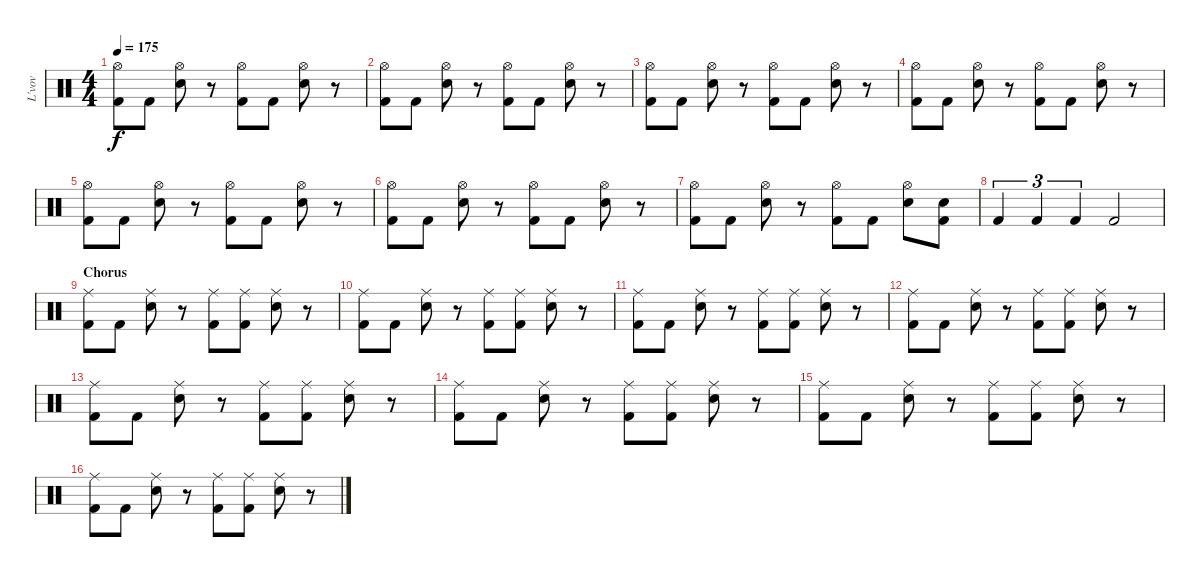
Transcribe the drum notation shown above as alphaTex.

\track ("L'vov" "L'vov") {instrument percussion}
\staff {score}
\articulation defaults
\ts (4 4)
\tempo 175
\clef neutral
\ks c
("Kick (hit) 2" "Hi-Hat (open)").8{dy f} "Kick (hit) 2".8 ("Snare (hit) 2" "Hi-Hat (open)").8 r.8 ("Kick (hit) 2" "Hi-Hat (open)").8 "Kick (hit) 2".8 ("Snare (hit) 2" "Hi-Hat (open)").8 r.8 |
("Kick (hit) 2" "Hi-Hat (open)").8 "Kick (hit) 2".8 ("Snare (hit) 2" "Hi-Hat (open)").8 r.8 ("Kick (hit) 2" "Hi-Hat (open)").8 "Kick (hit) 2".8 ("Snare (hit) 2" "Hi-Hat (open)").8 r.8 |
("Kick (hit) 2" "Hi-Hat (open)").8 "Kick (hit) 2".8 ("Snare (hit) 2" "Hi-Hat (open)").8 r.8 ("Kick (hit) 2" "Hi-Hat (open)").8 "Kick (hit) 2".8 ("Snare (hit) 2" "Hi-Hat (open)").8 r.8 |
("Kick (hit) 2" "Hi-Hat (open)").8 "Kick (hit) 2".8 ("Snare (hit) 2" "Hi-Hat (open)").8 r.8 ("Kick (hit) 2" "Hi-Hat (open)").8 "Kick (hit) 2".8 ("Snare (hit) 2" "Hi-Hat (open)").8 r.8 |
("Kick (hit) 2" "Hi-Hat (open)").8 "Kick (hit) 2".8 ("Snare (hit) 2" "Hi-Hat (open)").8 r.8 ("Kick (hit) 2" "Hi-Hat (open)").8 "Kick (hit) 2".8 ("Snare (hit) 2" "Hi-Hat (open)").8 r.8 |
("Kick (hit) 2" "Hi-Hat (open)").8 "Kick (hit) 2".8 ("Snare (hit) 2" "Hi-Hat (open)").8 r.8 ("Kick (hit) 2" "Hi-Hat (open)").8 "Kick (hit) 2".8 ("Snare (hit) 2" "Hi-Hat (open)").8 r.8 |
("Kick (hit) 2" "Hi-Hat (open)").8 "Kick (hit) 2".8 ("Snare (hit) 2" "Hi-Hat (open)").8 r.8 ("Kick (hit) 2" "Hi-Hat (open)").8 "Kick (hit) 2".8 ("Snare (hit) 2" "Hi-Hat (open)").8 ("Snare (hit) 2" "Kick (hit) 2").8 |
"Kick (hit) 2".4{tu (3 2)} "Kick (hit) 2".4{tu (3 2)} "Kick (hit) 2".4{tu (3 2)} "Kick (hit) 2".2 |
\section ("" "Chorus")
("Kick (hit) 2" "Ride (middle)").8 "Kick (hit) 2".8 ("Snare (hit) 2" "Ride (middle)").8 r.8 ("Kick (hit) 2" "Ride (middle)").8 ("Kick (hit) 2" "Ride (middle)").8 ("Snare (hit) 2" "Ride (middle)").8 r.8 |
("Kick (hit) 2" "Ride (middle)").8 "Kick (hit) 2".8 ("Snare (hit) 2" "Ride (middle)").8 r.8 ("Kick (hit) 2" "Ride (middle)").8 ("Kick (hit) 2" "Ride (middle)").8 ("Snare (hit) 2" "Ride (middle)").8 r.8 |
("Kick (hit) 2" "Ride (middle)").8 "Kick (hit) 2".8 ("Snare (hit) 2" "Ride (middle)").8 r.8 ("Kick (hit) 2" "Ride (middle)").8 ("Kick (hit) 2" "Ride (middle)").8 ("Snare (hit) 2" "Ride (middle)").8 r.8 |
("Kick (hit) 2" "Ride (middle)").8 "Kick (hit) 2".8 ("Snare (hit) 2" "Ride (middle)").8 r.8 ("Kick (hit) 2" "Ride (middle)").8 ("Kick (hit) 2" "Ride (middle)").8 ("Snare (hit) 2" "Ride (middle)").8 r.8 |
("Kick (hit) 2" "Ride (middle)").8 "Kick (hit) 2".8 ("Snare (hit) 2" "Ride (middle)").8 r.8 ("Kick (hit) 2" "Ride (middle)").8 ("Kick (hit) 2" "Ride (middle)").8 ("Snare (hit) 2" "Ride (middle)").8 r.8 |
("Kick (hit) 2" "Ride (middle)").8 "Kick (hit) 2".8 ("Snare (hit) 2" "Ride (middle)").8 r.8 ("Kick (hit) 2" "Ride (middle)").8 ("Kick (hit) 2" "Ride (middle)").8 ("Snare (hit) 2" "Ride (middle)").8 r.8 |
("Kick (hit) 2" "Ride (middle)").8 "Kick (hit) 2".8 ("Snare (hit) 2" "Ride (middle)").8 r.8 ("Kick (hit) 2" "Ride (middle)").8 ("Kick (hit) 2" "Ride (middle)").8 ("Snare (hit) 2" "Ride (middle)").8 r.8 |
("Kick (hit) 2" "Ride (middle)").8 "Kick (hit) 2".8 ("Snare (hit) 2" "Ride (middle)").8 r.8 ("Kick (hit) 2" "Ride (middle)").8 ("Kick (hit) 2" "Ride (middle)").8 ("Snare (hit) 2" "Ride (middle)").8 r.8
